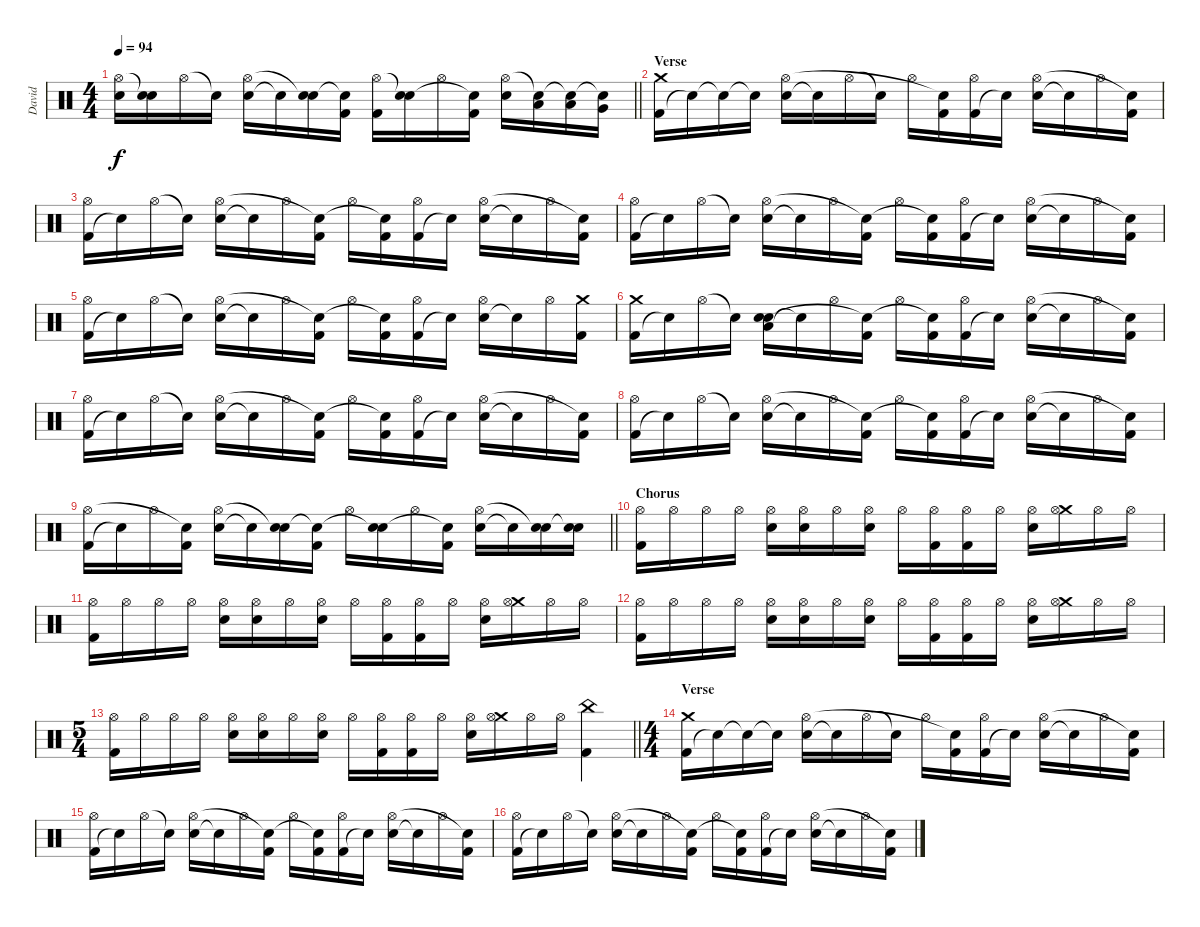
\track ("David" "David") {instrument percussion}
\staff {score}
\articulation defaults
\ts (4 4)
\tempo 94
\clef neutral
\barLineRight lightlight
\ks c
("Electric Snare (hit)" "Hi-Hat (open)").16{dy f} ("Electric Snare (hit)" "Snare (hit)"{t}).16 "Hi-Hat (open)".16 "Snare (hit)"{t}.16 ("Electric Snare (hit)" "Hi-Hat (open)").16 "Snare (hit)"{t}.16 ("Electric Snare (hit)" "Snare (hit)"{t}).16 ("Kick (hit) 2" "Snare (hit)"{t}).16 ("Kick (hit) 2" "Hi-Hat (open)").16 ("Electric Snare (hit)" "Snare (hit)"{t}).16 "Hi-Hat (open)".16 ("Kick (hit) 2" "Snare (hit)"{t}).16 ("Electric Snare (hit)" "Hi-Hat (open)").16 ("Low Tom (hit)" "Snare (hit)"{t}).16 ("Low Tom (hit)" "Snare (hit)"{t}).16 ("Very Low Tom (hit)" "Snare (hit)"{t}).16 |
\section ("" "Verse")
("Kick (hit) 2" "Crash medium (hit)").16 "Snare (hit)"{t}.16 "Snare (hit)"{t}.16 "Snare (hit)"{t}.16 ("Electric Snare (hit)" "Hi-Hat (open)").16 "Snare (hit)"{t}.16 "Hi-Hat (open)".16 "Snare (hit)"{t}.16 "Hi-Hat (open)".16 ("Kick (hit) 2" "Snare (hit)"{t}).16 ("Kick (hit) 2" "Hi-Hat (open)").16 "Snare (hit)"{t}.16 ("Electric Snare (hit)" "Hi-Hat (open)").16 "Snare (hit)"{t}.16 "Hi-Hat (open)".16 ("Kick (hit) 2" "Snare (hit)"{t}).16 |
("Kick (hit) 2" "Hi-Hat (open)").16 "Snare (hit)"{t}.16 "Hi-Hat (open)".16 "Snare (hit)"{t}.16 ("Electric Snare (hit)" "Hi-Hat (open)").16 "Snare (hit)"{t}.16 "Hi-Hat (open)".16 ("Kick (hit) 2" "Snare (hit)"{t}).16 "Hi-Hat (open)".16 ("Kick (hit) 2" "Snare (hit)"{t}).16 ("Kick (hit) 2" "Hi-Hat (open)").16 "Snare (hit)"{t}.16 ("Electric Snare (hit)" "Hi-Hat (open)").16 "Snare (hit)"{t}.16 "Hi-Hat (open)".16 ("Kick (hit) 2" "Snare (hit)"{t}).16 |
("Kick (hit) 2" "Hi-Hat (open)").16 "Snare (hit)"{t}.16 "Hi-Hat (open)".16 "Snare (hit)"{t}.16 ("Electric Snare (hit)" "Hi-Hat (open)").16 "Snare (hit)"{t}.16 "Hi-Hat (open)".16 ("Kick (hit) 2" "Snare (hit)"{t}).16 "Hi-Hat (open)".16 ("Kick (hit) 2" "Snare (hit)"{t}).16 ("Kick (hit) 2" "Hi-Hat (open)").16 "Snare (hit)"{t}.16 ("Electric Snare (hit)" "Hi-Hat (open)").16 "Snare (hit)"{t}.16 "Hi-Hat (open)".16 ("Kick (hit) 2" "Snare (hit)"{t}).16 |
("Kick (hit) 2" "Hi-Hat (open)").16 "Snare (hit)"{t}.16 "Hi-Hat (open)".16 "Snare (hit)"{t}.16 ("Electric Snare (hit)" "Hi-Hat (open)").16 "Snare (hit)"{t}.16 "Hi-Hat (open)".16 ("Kick (hit) 2" "Snare (hit)"{t}).16 "Hi-Hat (open)".16 ("Kick (hit) 2" "Snare (hit)"{t}).16 ("Kick (hit) 2" "Hi-Hat (open)").16 "Snare (hit)"{t}.16 ("Electric Snare (hit)" "Hi-Hat (open)").16 "Snare (hit)"{t}.16 "Hi-Hat (open)".16 ("Kick (hit) 2" "Crash medium (hit)").16 |
("Kick (hit) 2" "Crash medium (hit)").16 "Snare (hit)"{t}.16 "Hi-Hat (open)".16 "Snare (hit)"{t}.16 ("Low Tom (hit)" "Electric Snare (hit)" "Snare (hit)").16 "Snare (hit)"{t}.16 "Hi-Hat (open)".16 ("Kick (hit) 2" "Snare (hit)"{t}).16 "Hi-Hat (open)".16 ("Kick (hit) 2" "Snare (hit)"{t}).16 ("Kick (hit) 2" "Hi-Hat (open)").16 "Snare (hit)"{t}.16 ("Electric Snare (hit)" "Hi-Hat (open)").16 "Snare (hit)"{t}.16 "Hi-Hat (open)".16 ("Kick (hit) 2" "Snare (hit)"{t}).16 |
("Kick (hit) 2" "Hi-Hat (open)").16 "Snare (hit)"{t}.16 "Hi-Hat (open)".16 "Snare (hit)"{t}.16 ("Electric Snare (hit)" "Hi-Hat (open)").16 "Snare (hit)"{t}.16 "Hi-Hat (open)".16 ("Kick (hit) 2" "Snare (hit)"{t}).16 "Hi-Hat (open)".16 ("Kick (hit) 2" "Snare (hit)"{t}).16 ("Kick (hit) 2" "Hi-Hat (open)").16 "Snare (hit)"{t}.16 ("Electric Snare (hit)" "Hi-Hat (open)").16 "Snare (hit)"{t}.16 "Hi-Hat (open)".16 ("Kick (hit) 2" "Snare (hit)"{t}).16 |
("Kick (hit) 2" "Hi-Hat (open)").16 "Snare (hit)"{t}.16 "Hi-Hat (open)".16 "Snare (hit)"{t}.16 ("Electric Snare (hit)" "Hi-Hat (open)").16 "Snare (hit)"{t}.16 "Hi-Hat (open)".16 ("Kick (hit) 2" "Snare (hit)"{t}).16 "Hi-Hat (open)".16 ("Kick (hit) 2" "Snare (hit)"{t}).16 ("Kick (hit) 2" "Hi-Hat (open)").16 "Snare (hit)"{t}.16 ("Electric Snare (hit)" "Hi-Hat (open)").16 "Snare (hit)"{t}.16 "Hi-Hat (open)".16 ("Kick (hit) 2" "Snare (hit)"{t}).16 |
\barLineRight lightlight
("Kick (hit) 2" "Hi-Hat (open)").16 "Snare (hit)"{t}.16 "Hi-Hat (open)".16 ("Kick (hit) 2" "Snare (hit)"{t}).16 ("Electric Snare (hit)" "Hi-Hat (open)").16 "Snare (hit)"{t}.16 ("Electric Snare (hit)" "Snare (hit)"{t}).16 ("Kick (hit) 2" "Snare (hit)"{t}).16 "Hi-Hat (open)".16 ("Electric Snare (hit)" "Snare (hit)"{t}).16 "Hi-Hat (open)".16 ("Kick (hit) 2" "Snare (hit)"{t}).16 ("Electric Snare (hit)" "Hi-Hat (open)").16 "Snare (hit)"{t}.16 ("Electric Snare (hit)" "Snare (hit)"{t}).16 ("Electric Snare (hit)" "Snare (hit)"{t}).16 |
\section ("" "Chorus")
("Kick (hit) 2" "Hi-Hat (open)").16 "Hi-Hat (open)".16 "Hi-Hat (open)".16 "Hi-Hat (open)".16 ("Electric Snare (hit)" "Hi-Hat (open)").16 ("Electric Snare (hit)" "Hi-Hat (open)").16 "Hi-Hat (open)".16 ("Electric Snare (hit)" "Hi-Hat (open)").16 "Hi-Hat (open)".16 ("Kick (hit) 2" "Hi-Hat (open)").16 ("Kick (hit) 2" "Hi-Hat (open)").16 "Hi-Hat (open)".16 ("Electric Snare (hit)" "Hi-Hat (open)").16 ("Crash medium (hit)" "Hi-Hat (open)").16 "Hi-Hat (open)".16 "Hi-Hat (open)".16 |
("Kick (hit) 2" "Hi-Hat (open)").16 "Hi-Hat (open)".16 "Hi-Hat (open)".16 "Hi-Hat (open)".16 ("Electric Snare (hit)" "Hi-Hat (open)").16 ("Electric Snare (hit)" "Hi-Hat (open)").16 "Hi-Hat (open)".16 ("Electric Snare (hit)" "Hi-Hat (open)").16 "Hi-Hat (open)".16 ("Kick (hit) 2" "Hi-Hat (open)").16 ("Kick (hit) 2" "Hi-Hat (open)").16 "Hi-Hat (open)".16 ("Electric Snare (hit)" "Hi-Hat (open)").16 ("Crash medium (hit)" "Hi-Hat (open)").16 "Hi-Hat (open)".16 "Hi-Hat (open)".16 |
("Kick (hit) 2" "Hi-Hat (open)").16 "Hi-Hat (open)".16 "Hi-Hat (open)".16 "Hi-Hat (open)".16 ("Electric Snare (hit)" "Hi-Hat (open)").16 ("Electric Snare (hit)" "Hi-Hat (open)").16 "Hi-Hat (open)".16 ("Electric Snare (hit)" "Hi-Hat (open)").16 "Hi-Hat (open)".16 ("Kick (hit) 2" "Hi-Hat (open)").16 ("Kick (hit) 2" "Hi-Hat (open)").16 "Hi-Hat (open)".16 ("Electric Snare (hit)" "Hi-Hat (open)").16 ("Crash medium (hit)" "Hi-Hat (open)").16 "Hi-Hat (open)".16 "Hi-Hat (open)".16 |
\ts (5 4)
\barLineRight lightlight
("Kick (hit) 2" "Hi-Hat (open)").16 "Hi-Hat (open)".16 "Hi-Hat (open)".16 "Hi-Hat (open)".16 ("Electric Snare (hit)" "Hi-Hat (open)").16 ("Electric Snare (hit)" "Hi-Hat (open)").16 "Hi-Hat (open)".16 ("Electric Snare (hit)" "Hi-Hat (open)").16 "Hi-Hat (open)".16 ("Kick (hit) 2" "Hi-Hat (open)").16 ("Kick (hit) 2" "Hi-Hat (open)").16 "Hi-Hat (open)".16 ("Electric Snare (hit)" "Hi-Hat (open)").16 ("Crash medium (hit)" "Hi-Hat (open)").16 "Hi-Hat (open)".16 "Hi-Hat (open)".16 ("Kick (hit) 2" "China (hit)").4 |
\ts (4 4)
\section ("" "Verse")
("Kick (hit) 2" "Crash medium (hit)").16 "Snare (hit)"{t}.16 "Snare (hit)"{t}.16 "Snare (hit)"{t}.16 ("Electric Snare (hit)" "Hi-Hat (open)").16 "Snare (hit)"{t}.16 "Hi-Hat (open)".16 "Snare (hit)"{t}.16 "Hi-Hat (open)".16 ("Kick (hit) 2" "Snare (hit)"{t}).16 ("Kick (hit) 2" "Hi-Hat (open)").16 "Snare (hit)"{t}.16 ("Electric Snare (hit)" "Hi-Hat (open)").16 "Snare (hit)"{t}.16 "Hi-Hat (open)".16 ("Kick (hit) 2" "Snare (hit)"{t}).16 |
("Kick (hit) 2" "Hi-Hat (open)").16 "Snare (hit)"{t}.16 "Hi-Hat (open)".16 "Snare (hit)"{t}.16 ("Electric Snare (hit)" "Hi-Hat (open)").16 "Snare (hit)"{t}.16 "Hi-Hat (open)".16 ("Kick (hit) 2" "Snare (hit)"{t}).16 "Hi-Hat (open)".16 ("Kick (hit) 2" "Snare (hit)"{t}).16 ("Kick (hit) 2" "Hi-Hat (open)").16 "Snare (hit)"{t}.16 ("Electric Snare (hit)" "Hi-Hat (open)").16 "Snare (hit)"{t}.16 "Hi-Hat (open)".16 ("Kick (hit) 2" "Snare (hit)"{t}).16 |
("Kick (hit) 2" "Hi-Hat (open)").16 "Snare (hit)"{t}.16 "Hi-Hat (open)".16 "Snare (hit)"{t}.16 ("Electric Snare (hit)" "Hi-Hat (open)").16 "Snare (hit)"{t}.16 "Hi-Hat (open)".16 ("Kick (hit) 2" "Snare (hit)"{t}).16 "Hi-Hat (open)".16 ("Kick (hit) 2" "Snare (hit)"{t}).16 ("Kick (hit) 2" "Hi-Hat (open)").16 "Snare (hit)"{t}.16 ("Electric Snare (hit)" "Hi-Hat (open)").16 "Snare (hit)"{t}.16 "Hi-Hat (open)".16 ("Kick (hit) 2" "Snare (hit)"{t}).16
